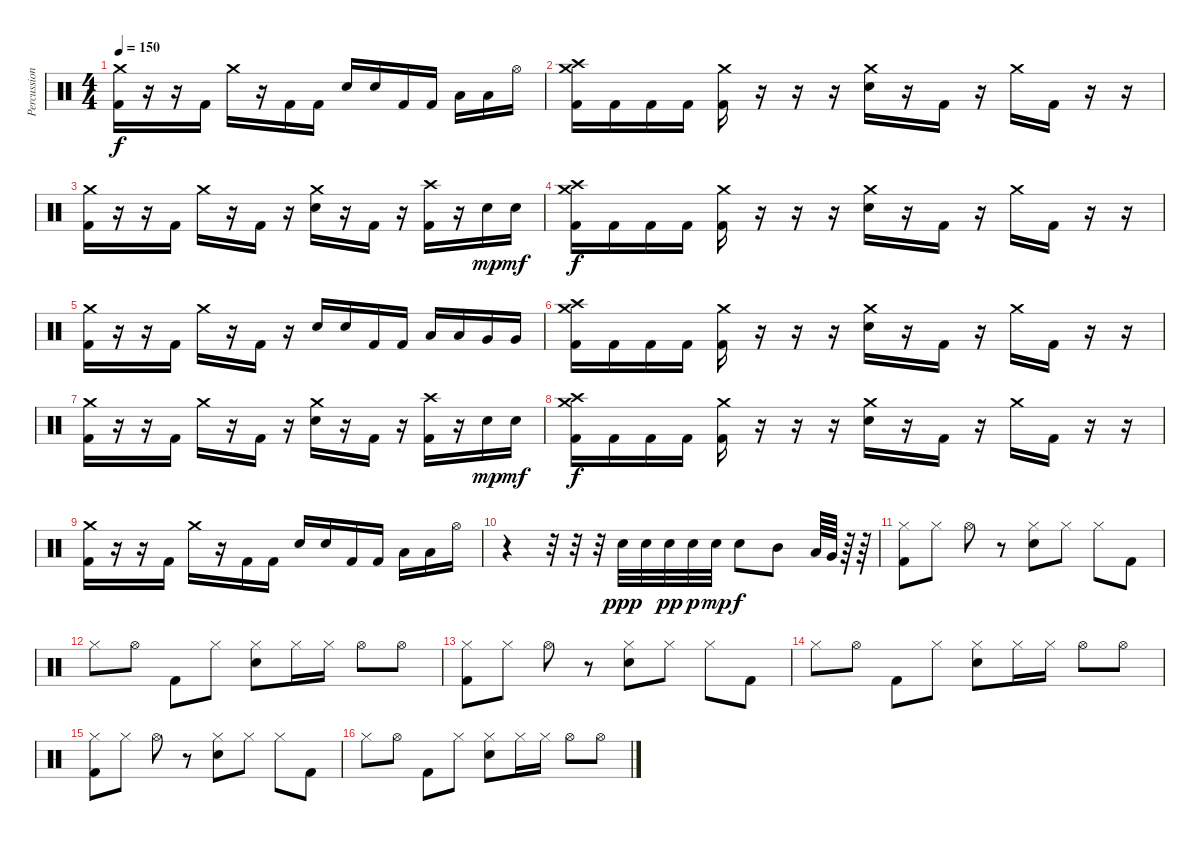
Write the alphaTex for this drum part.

\track ("Percussioni" "Percussion") {instrument percussion}
\staff {score}
\articulation defaults
\ts (4 4)
\tempo 150
\clef neutral
\ks c
("Crash medium (hit)" "Kick (hit) 2").16{dy f} r.16 r.16 "Kick (hit) 2".16 "Crash medium (hit)".16 r.16 "Kick (hit) 2".16 "Kick (hit) 2".16 "Snare (hit) 2".16 "Snare (hit) 2".16 "Kick (hit) 2".16 "Kick (hit) 2".16 "Low Tom (hit)".16 "Low Tom (hit)".16 "Hi-Hat (open)".16 |
("Crash high (hit)" "Kick (hit) 2" "Crash medium (hit)").16 "Kick (hit) 2".16 "Kick (hit) 2".16 "Kick (hit) 2".16 ("Kick (hit) 2" "Crash medium (hit)").16 r.16 r.16 r.16 ("Snare (hit) 2" "Crash medium (hit)").16 r.16 "Kick (hit) 2".16 r.16 "Crash medium (hit)".16 "Kick (hit) 2".16 r.16 r.16 |
("Crash medium (hit)" "Kick (hit) 2").16 r.16 r.16 "Kick (hit) 2".16 "Crash medium (hit)".16 r.16 "Kick (hit) 2".16 r.16 ("Snare (hit) 2" "Crash medium (hit)").16 r.16 "Kick (hit) 2".16 r.16 ("Kick (hit) 2" "Crash high (hit)").16 r.16 "Snare (hit) 2".16{dy mp} "Snare (hit) 2".16{dy mf} |
("Crash high (hit)" "Kick (hit) 2" "Crash medium (hit)").16{dy f} "Kick (hit) 2".16 "Kick (hit) 2".16 "Kick (hit) 2".16 ("Kick (hit) 2" "Crash medium (hit)").16 r.16 r.16 r.16 ("Snare (hit) 2" "Crash medium (hit)").16 r.16 "Kick (hit) 2".16 r.16 "Crash medium (hit)".16 "Kick (hit) 2".16 r.16 r.16 |
("Crash medium (hit)" "Kick (hit) 2").16 r.16 r.16 "Kick (hit) 2".16 "Crash medium (hit)".16 r.16 "Kick (hit) 2".16 r.16 "Snare (hit) 2".16 "Snare (hit) 2".16 "Kick (hit) 2".16 "Kick (hit) 2".16 "Low Tom (hit)".16 "Low Tom (hit)".16 "Very Low Tom (hit)".16 "Very Low Tom (hit)".16 |
("Crash high (hit)" "Kick (hit) 2" "Crash medium (hit)").16 "Kick (hit) 2".16 "Kick (hit) 2".16 "Kick (hit) 2".16 ("Kick (hit) 2" "Crash medium (hit)").16 r.16 r.16 r.16 ("Snare (hit) 2" "Crash medium (hit)").16 r.16 "Kick (hit) 2".16 r.16 "Crash medium (hit)".16 "Kick (hit) 2".16 r.16 r.16 |
("Crash medium (hit)" "Kick (hit) 2").16 r.16 r.16 "Kick (hit) 2".16 "Crash medium (hit)".16 r.16 "Kick (hit) 2".16 r.16 ("Snare (hit) 2" "Crash medium (hit)").16 r.16 "Kick (hit) 2".16 r.16 ("Kick (hit) 2" "Crash high (hit)").16 r.16 "Snare (hit) 2".16{dy mp} "Snare (hit) 2".16{dy mf} |
("Crash high (hit)" "Kick (hit) 2" "Crash medium (hit)").16{dy f} "Kick (hit) 2".16 "Kick (hit) 2".16 "Kick (hit) 2".16 ("Kick (hit) 2" "Crash medium (hit)").16 r.16 r.16 r.16 ("Snare (hit) 2" "Crash medium (hit)").16 r.16 "Kick (hit) 2".16 r.16 "Crash medium (hit)".16 "Kick (hit) 2".16 r.16 r.16 |
("Crash medium (hit)" "Kick (hit) 2").16 r.16 r.16 "Kick (hit) 2".16 "Crash medium (hit)".16 r.16 "Kick (hit) 2".16 "Kick (hit) 2".16 "Snare (hit) 2".16 "Snare (hit) 2".16 "Kick (hit) 2".16 "Kick (hit) 2".16 "Low Tom (hit)".16 "Low Tom (hit)".16 "Hi-Hat (open)".16 |
r.4 r.32 r.32 r.32 "Snare (hit) 2".32{dy ppp} "Snare (hit) 2".32 "Snare (hit) 2".32{dy pp} "Snare (hit) 2".32{dy p} "Snare (hit) 2".32{dy mp} "Snare (hit) 2".8{dy f} "Mid Tom (hit)".8 "Low Tom (hit)".64 "Very Low Tom (hit)".64 r.64 r.64 |
("Kick (hit) 2" "Hi-Hat (closed)").8 "Hi-Hat (closed)".8 "Hi-Hat (open)".8 r.8 ("Snare (hit) 2" "Hi-Hat (closed)").8 "Hi-Hat (closed)".8 "Hi-Hat (closed)".8 "Kick (hit) 2".8 |
"Hi-Hat (closed)".8 "Hi-Hat (open)".8 "Kick (hit) 2".8 "Hi-Hat (closed)".8 ("Snare (hit) 2" "Hi-Hat (closed)").8 "Hi-Hat (closed)".16 "Hi-Hat (closed)".16 "Hi-Hat (open)".8 "Hi-Hat (open)".8 |
("Kick (hit) 2" "Hi-Hat (closed)").8 "Hi-Hat (closed)".8 "Hi-Hat (open)".8 r.8 ("Snare (hit) 2" "Hi-Hat (closed)").8 "Hi-Hat (closed)".8 "Hi-Hat (closed)".8 "Kick (hit) 2".8 |
"Hi-Hat (closed)".8 "Hi-Hat (open)".8 "Kick (hit) 2".8 "Hi-Hat (closed)".8 ("Snare (hit) 2" "Hi-Hat (closed)").8 "Hi-Hat (closed)".16 "Hi-Hat (closed)".16 "Hi-Hat (open)".8 "Hi-Hat (open)".8 |
("Kick (hit) 2" "Hi-Hat (closed)").8 "Hi-Hat (closed)".8 "Hi-Hat (open)".8 r.8 ("Snare (hit) 2" "Hi-Hat (closed)").8 "Hi-Hat (closed)".8 "Hi-Hat (closed)".8 "Kick (hit) 2".8 |
"Hi-Hat (closed)".8 "Hi-Hat (open)".8 "Kick (hit) 2".8 "Hi-Hat (closed)".8 ("Snare (hit) 2" "Hi-Hat (closed)").8 "Hi-Hat (closed)".16 "Hi-Hat (closed)".16 "Hi-Hat (open)".8 "Hi-Hat (open)".8
